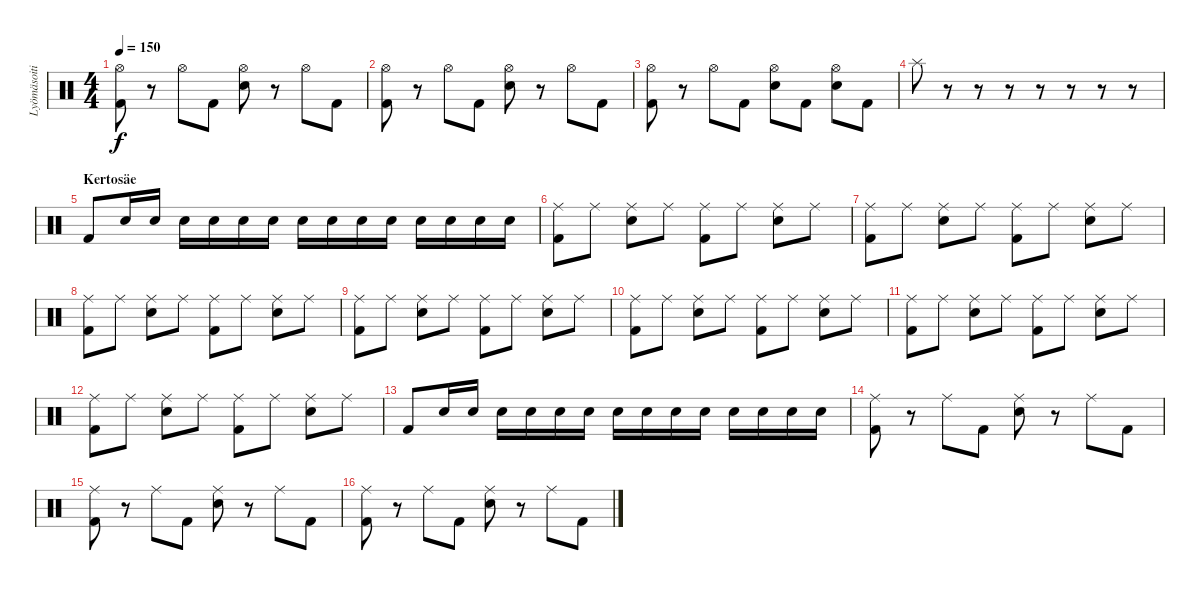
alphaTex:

\track ("Lyömäsoitin" "Lyömäsoiti") {instrument percussion}
\staff {score}
\articulation defaults
\ts (4 4)
\tempo 150
\clef neutral
\ks c
("Hi-Hat (open)" "Kick (hit) 2").8{dy f} r.8 "Hi-Hat (open)".8 "Kick (hit) 2".8 ("Hi-Hat (open)" "Electric Snare (hit)").8 r.8 "Hi-Hat (open)".8 "Kick (hit) 2".8 |
("Hi-Hat (open)" "Kick (hit) 2").8 r.8 "Hi-Hat (open)".8 "Kick (hit) 2".8 ("Hi-Hat (open)" "Electric Snare (hit)").8 r.8 "Hi-Hat (open)".8 "Kick (hit) 2".8 |
("Hi-Hat (open)" "Kick (hit) 2").8 r.8 "Hi-Hat (open)".8 "Kick (hit) 2".8 ("Hi-Hat (open)" "Electric Snare (hit)").8 "Kick (hit) 2".8 ("Hi-Hat (open)" "Electric Snare (hit)").8 "Kick (hit) 2".8 |
"Splash (hit)".8 r.8 r.8 r.8 r.8 r.8 r.8 r.8 |
\section ("" "Kertosäe")
"Kick (hit) 2".8 "Electric Snare (hit)".16 "Electric Snare (hit)".16 "Electric Snare (hit)".16 "Electric Snare (hit)".16 "Electric Snare (hit)".16 "Electric Snare (hit)".16 "Electric Snare (hit)".16 "Electric Snare (hit)".16 "Electric Snare (hit)".16 "Electric Snare (hit)".16 "Electric Snare (hit)".16 "Electric Snare (hit)".16 "Electric Snare (hit)".16 "Electric Snare (hit)".16 |
("Ride (middle)" "Kick (hit) 2").8 "Ride (middle)".8 ("Ride (middle)" "Electric Snare (hit)").8 "Ride (middle)".8 ("Ride (middle)" "Kick (hit) 2").8 "Ride (middle)".8 ("Ride (middle)" "Electric Snare (hit)").8 "Ride (middle)".8 |
("Ride (middle)" "Kick (hit) 2").8 "Ride (middle)".8 ("Ride (middle)" "Electric Snare (hit)").8 "Ride (middle)".8 ("Ride (middle)" "Kick (hit) 2").8 "Ride (middle)".8 ("Ride (middle)" "Electric Snare (hit)").8 "Ride (middle)".8 |
("Ride (middle)" "Kick (hit) 2").8 "Ride (middle)".8 ("Ride (middle)" "Electric Snare (hit)").8 "Ride (middle)".8 ("Ride (middle)" "Kick (hit) 2").8 "Ride (middle)".8 ("Ride (middle)" "Electric Snare (hit)").8 "Ride (middle)".8 |
("Ride (middle)" "Kick (hit) 2").8 "Ride (middle)".8 ("Ride (middle)" "Electric Snare (hit)").8 "Ride (middle)".8 ("Ride (middle)" "Kick (hit) 2").8 "Ride (middle)".8 ("Ride (middle)" "Electric Snare (hit)").8 "Ride (middle)".8 |
("Ride (middle)" "Kick (hit) 2").8 "Ride (middle)".8 ("Ride (middle)" "Electric Snare (hit)").8 "Ride (middle)".8 ("Ride (middle)" "Kick (hit) 2").8 "Ride (middle)".8 ("Ride (middle)" "Electric Snare (hit)").8 "Ride (middle)".8 |
("Ride (middle)" "Kick (hit) 2").8 "Ride (middle)".8 ("Ride (middle)" "Electric Snare (hit)").8 "Ride (middle)".8 ("Ride (middle)" "Kick (hit) 2").8 "Ride (middle)".8 ("Ride (middle)" "Electric Snare (hit)").8 "Ride (middle)".8 |
("Ride (middle)" "Kick (hit) 2").8 "Ride (middle)".8 ("Ride (middle)" "Electric Snare (hit)").8 "Ride (middle)".8 ("Ride (middle)" "Kick (hit) 2").8 "Ride (middle)".8 ("Ride (middle)" "Electric Snare (hit)").8 "Ride (middle)".8 |
"Kick (hit) 2".8 "Electric Snare (hit)".16 "Electric Snare (hit)".16 "Electric Snare (hit)".16 "Electric Snare (hit)".16 "Electric Snare (hit)".16 "Electric Snare (hit)".16 "Electric Snare (hit)".16 "Electric Snare (hit)".16 "Electric Snare (hit)".16 "Electric Snare (hit)".16 "Electric Snare (hit)".16 "Electric Snare (hit)".16 "Electric Snare (hit)".16 "Electric Snare (hit)".16 |
("Ride (middle)" "Kick (hit) 2").8 r.8 "Ride (middle)".8 "Kick (hit) 2".8 ("Ride (middle)" "Electric Snare (hit)").8 r.8 "Ride (middle)".8 "Kick (hit) 2".8 |
("Ride (middle)" "Kick (hit) 2").8 r.8 "Ride (middle)".8 "Kick (hit) 2".8 ("Ride (middle)" "Electric Snare (hit)").8 r.8 "Ride (middle)".8 "Kick (hit) 2".8 |
("Ride (middle)" "Kick (hit) 2").8 r.8 "Ride (middle)".8 "Kick (hit) 2".8 ("Ride (middle)" "Electric Snare (hit)").8 r.8 "Ride (middle)".8 "Kick (hit) 2".8
